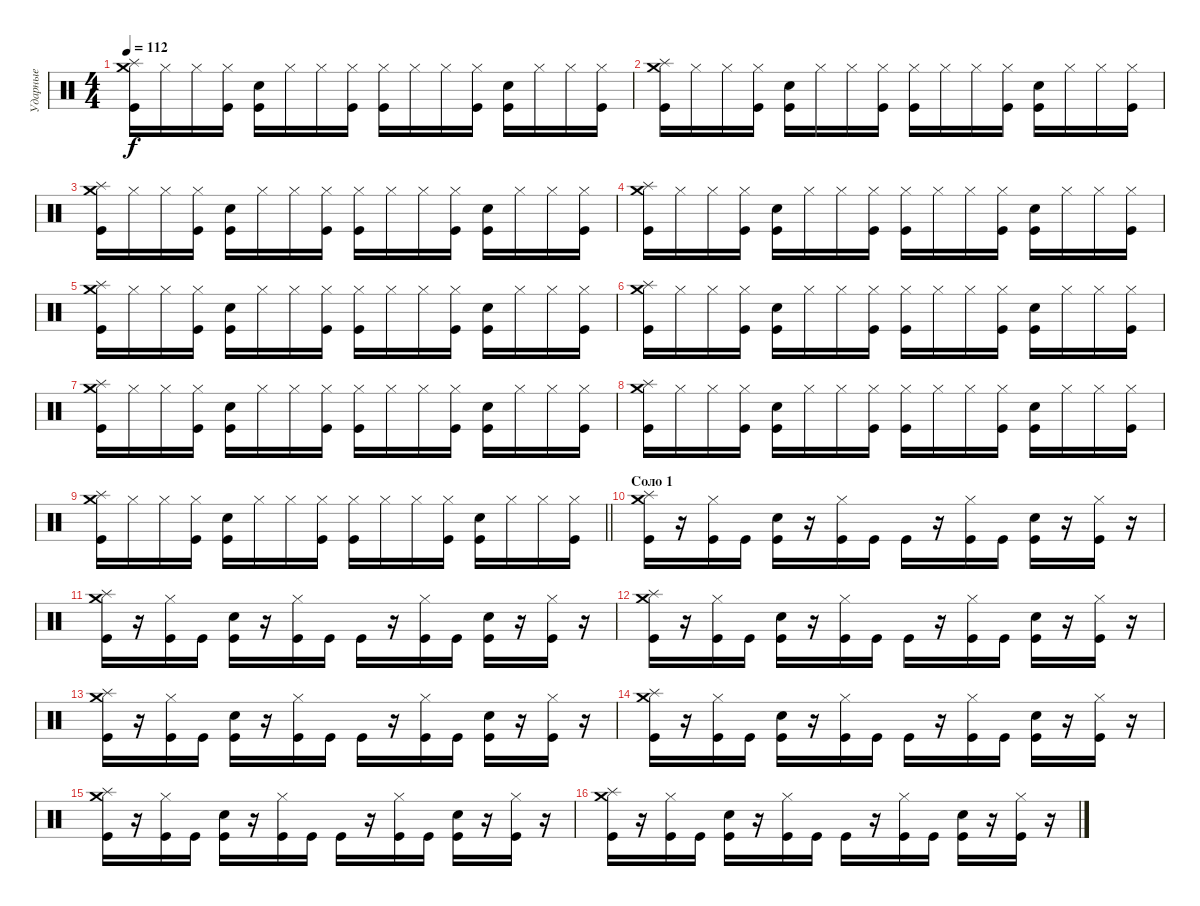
\track ("Ударные" "Ударные") {instrument percussion}
\staff {score}
\articulation defaults
\ts (4 4)
\tempo 112
\clef neutral
\ks c
("Splash (hit)" "Crash medium (hit)" "Kick (hit)").16{dy f} "Hi-Hat (closed)".16 "Hi-Hat (closed)".16 ("Hi-Hat (closed)" "Kick (hit)").16 ("Snare (hit) 2" "Kick (hit)").16 "Hi-Hat (closed)".16 "Hi-Hat (closed)".16 ("Hi-Hat (closed)" "Kick (hit)").16 ("Hi-Hat (closed)" "Kick (hit)").16 "Hi-Hat (closed)".16 "Hi-Hat (closed)".16 ("Hi-Hat (closed)" "Kick (hit)").16 ("Snare (hit) 2" "Kick (hit)").16 "Hi-Hat (closed)".16 "Hi-Hat (closed)".16 ("Hi-Hat (closed)" "Kick (hit)").16 |
("Splash (hit)" "Crash medium (hit)" "Kick (hit)").16 "Hi-Hat (closed)".16 "Hi-Hat (closed)".16 ("Hi-Hat (closed)" "Kick (hit)").16 ("Snare (hit) 2" "Kick (hit)").16 "Hi-Hat (closed)".16 "Hi-Hat (closed)".16 ("Hi-Hat (closed)" "Kick (hit)").16 ("Hi-Hat (closed)" "Kick (hit)").16 "Hi-Hat (closed)".16 "Hi-Hat (closed)".16 ("Hi-Hat (closed)" "Kick (hit)").16 ("Snare (hit) 2" "Kick (hit)").16 "Hi-Hat (closed)".16 "Hi-Hat (closed)".16 ("Hi-Hat (closed)" "Kick (hit)").16 |
("Splash (hit)" "Crash medium (hit)" "Kick (hit)").16 "Hi-Hat (closed)".16 "Hi-Hat (closed)".16 ("Hi-Hat (closed)" "Kick (hit)").16 ("Snare (hit) 2" "Kick (hit)").16 "Hi-Hat (closed)".16 "Hi-Hat (closed)".16 ("Hi-Hat (closed)" "Kick (hit)").16 ("Hi-Hat (closed)" "Kick (hit)").16 "Hi-Hat (closed)".16 "Hi-Hat (closed)".16 ("Hi-Hat (closed)" "Kick (hit)").16 ("Snare (hit) 2" "Kick (hit)").16 "Hi-Hat (closed)".16 "Hi-Hat (closed)".16 ("Hi-Hat (closed)" "Kick (hit)").16 |
("Splash (hit)" "Crash medium (hit)" "Kick (hit)").16 "Hi-Hat (closed)".16 "Hi-Hat (closed)".16 ("Hi-Hat (closed)" "Kick (hit)").16 ("Snare (hit) 2" "Kick (hit)").16 "Hi-Hat (closed)".16 "Hi-Hat (closed)".16 ("Hi-Hat (closed)" "Kick (hit)").16 ("Hi-Hat (closed)" "Kick (hit)").16 "Hi-Hat (closed)".16 "Hi-Hat (closed)".16 ("Hi-Hat (closed)" "Kick (hit)").16 ("Snare (hit) 2" "Kick (hit)").16 "Hi-Hat (closed)".16 "Hi-Hat (closed)".16 ("Hi-Hat (closed)" "Kick (hit)").16 |
("Splash (hit)" "Crash medium (hit)" "Kick (hit)").16 "Hi-Hat (closed)".16 "Hi-Hat (closed)".16 ("Hi-Hat (closed)" "Kick (hit)").16 ("Snare (hit) 2" "Kick (hit)").16 "Hi-Hat (closed)".16 "Hi-Hat (closed)".16 ("Hi-Hat (closed)" "Kick (hit)").16 ("Hi-Hat (closed)" "Kick (hit)").16 "Hi-Hat (closed)".16 "Hi-Hat (closed)".16 ("Hi-Hat (closed)" "Kick (hit)").16 ("Snare (hit) 2" "Kick (hit)").16 "Hi-Hat (closed)".16 "Hi-Hat (closed)".16 ("Hi-Hat (closed)" "Kick (hit)").16 |
("Splash (hit)" "Crash medium (hit)" "Kick (hit)").16 "Hi-Hat (closed)".16 "Hi-Hat (closed)".16 ("Hi-Hat (closed)" "Kick (hit)").16 ("Snare (hit) 2" "Kick (hit)").16 "Hi-Hat (closed)".16 "Hi-Hat (closed)".16 ("Hi-Hat (closed)" "Kick (hit)").16 ("Hi-Hat (closed)" "Kick (hit)").16 "Hi-Hat (closed)".16 "Hi-Hat (closed)".16 ("Hi-Hat (closed)" "Kick (hit)").16 ("Snare (hit) 2" "Kick (hit)").16 "Hi-Hat (closed)".16 "Hi-Hat (closed)".16 ("Hi-Hat (closed)" "Kick (hit)").16 |
("Splash (hit)" "Crash medium (hit)" "Kick (hit)").16 "Hi-Hat (closed)".16 "Hi-Hat (closed)".16 ("Hi-Hat (closed)" "Kick (hit)").16 ("Snare (hit) 2" "Kick (hit)").16 "Hi-Hat (closed)".16 "Hi-Hat (closed)".16 ("Hi-Hat (closed)" "Kick (hit)").16 ("Hi-Hat (closed)" "Kick (hit)").16 "Hi-Hat (closed)".16 "Hi-Hat (closed)".16 ("Hi-Hat (closed)" "Kick (hit)").16 ("Snare (hit) 2" "Kick (hit)").16 "Hi-Hat (closed)".16 "Hi-Hat (closed)".16 ("Hi-Hat (closed)" "Kick (hit)").16 |
("Splash (hit)" "Crash medium (hit)" "Kick (hit)").16 "Hi-Hat (closed)".16 "Hi-Hat (closed)".16 ("Hi-Hat (closed)" "Kick (hit)").16 ("Snare (hit) 2" "Kick (hit)").16 "Hi-Hat (closed)".16 "Hi-Hat (closed)".16 ("Hi-Hat (closed)" "Kick (hit)").16 ("Hi-Hat (closed)" "Kick (hit)").16 "Hi-Hat (closed)".16 "Hi-Hat (closed)".16 ("Hi-Hat (closed)" "Kick (hit)").16 ("Snare (hit) 2" "Kick (hit)").16 "Hi-Hat (closed)".16 "Hi-Hat (closed)".16 ("Hi-Hat (closed)" "Kick (hit)").16 |
\barLineRight lightlight
("Splash (hit)" "Crash medium (hit)" "Kick (hit)").16 "Hi-Hat (closed)".16 "Hi-Hat (closed)".16 ("Hi-Hat (closed)" "Kick (hit)").16 ("Snare (hit) 2" "Kick (hit)").16 "Hi-Hat (closed)".16 "Hi-Hat (closed)".16 ("Hi-Hat (closed)" "Kick (hit)").16 ("Hi-Hat (closed)" "Kick (hit)").16 "Hi-Hat (closed)".16 "Hi-Hat (closed)".16 ("Hi-Hat (closed)" "Kick (hit)").16 ("Snare (hit) 2" "Kick (hit)").16 "Hi-Hat (closed)".16 "Hi-Hat (closed)".16 ("Hi-Hat (closed)" "Kick (hit)").16 |
\section ("" "Соло 1")
("Splash (hit)" "Crash medium (hit)" "Kick (hit)").16 r.16 ("Hi-Hat (closed)" "Kick (hit)").16 "Kick (hit)".16 ("Snare (hit) 2" "Kick (hit)").16 r.16 ("Hi-Hat (closed)" "Kick (hit)").16 "Kick (hit)".16 "Kick (hit)".16 r.16 ("Hi-Hat (closed)" "Kick (hit)").16 "Kick (hit)".16 ("Snare (hit) 2" "Kick (hit)").16 r.16 ("Hi-Hat (closed)" "Kick (hit)").16 r.16 |
("Splash (hit)" "Crash medium (hit)" "Kick (hit)").16 r.16 ("Hi-Hat (closed)" "Kick (hit)").16 "Kick (hit)".16 ("Snare (hit) 2" "Kick (hit)").16 r.16 ("Hi-Hat (closed)" "Kick (hit)").16 "Kick (hit)".16 "Kick (hit)".16 r.16 ("Hi-Hat (closed)" "Kick (hit)").16 "Kick (hit)".16 ("Snare (hit) 2" "Kick (hit)").16 r.16 ("Hi-Hat (closed)" "Kick (hit)").16 r.16 |
("Splash (hit)" "Crash medium (hit)" "Kick (hit)").16 r.16 ("Hi-Hat (closed)" "Kick (hit)").16 "Kick (hit)".16 ("Snare (hit) 2" "Kick (hit)").16 r.16 ("Hi-Hat (closed)" "Kick (hit)").16 "Kick (hit)".16 "Kick (hit)".16 r.16 ("Hi-Hat (closed)" "Kick (hit)").16 "Kick (hit)".16 ("Snare (hit) 2" "Kick (hit)").16 r.16 ("Hi-Hat (closed)" "Kick (hit)").16 r.16 |
("Splash (hit)" "Crash medium (hit)" "Kick (hit)").16 r.16 ("Hi-Hat (closed)" "Kick (hit)").16 "Kick (hit)".16 ("Snare (hit) 2" "Kick (hit)").16 r.16 ("Hi-Hat (closed)" "Kick (hit)").16 "Kick (hit)".16 "Kick (hit)".16 r.16 ("Hi-Hat (closed)" "Kick (hit)").16 "Kick (hit)".16 ("Snare (hit) 2" "Kick (hit)").16 r.16 ("Hi-Hat (closed)" "Kick (hit)").16 r.16 |
("Splash (hit)" "Crash medium (hit)" "Kick (hit)").16 r.16 ("Hi-Hat (closed)" "Kick (hit)").16 "Kick (hit)".16 ("Snare (hit) 2" "Kick (hit)").16 r.16 ("Hi-Hat (closed)" "Kick (hit)").16 "Kick (hit)".16 "Kick (hit)".16 r.16 ("Hi-Hat (closed)" "Kick (hit)").16 "Kick (hit)".16 ("Snare (hit) 2" "Kick (hit)").16 r.16 ("Hi-Hat (closed)" "Kick (hit)").16 r.16 |
("Splash (hit)" "Crash medium (hit)" "Kick (hit)").16 r.16 ("Hi-Hat (closed)" "Kick (hit)").16 "Kick (hit)".16 ("Snare (hit) 2" "Kick (hit)").16 r.16 ("Hi-Hat (closed)" "Kick (hit)").16 "Kick (hit)".16 "Kick (hit)".16 r.16 ("Hi-Hat (closed)" "Kick (hit)").16 "Kick (hit)".16 ("Snare (hit) 2" "Kick (hit)").16 r.16 ("Hi-Hat (closed)" "Kick (hit)").16 r.16 |
("Splash (hit)" "Crash medium (hit)" "Kick (hit)").16 r.16 ("Hi-Hat (closed)" "Kick (hit)").16 "Kick (hit)".16 ("Snare (hit) 2" "Kick (hit)").16 r.16 ("Hi-Hat (closed)" "Kick (hit)").16 "Kick (hit)".16 "Kick (hit)".16 r.16 ("Hi-Hat (closed)" "Kick (hit)").16 "Kick (hit)".16 ("Snare (hit) 2" "Kick (hit)").16 r.16 ("Hi-Hat (closed)" "Kick (hit)").16 r.16
